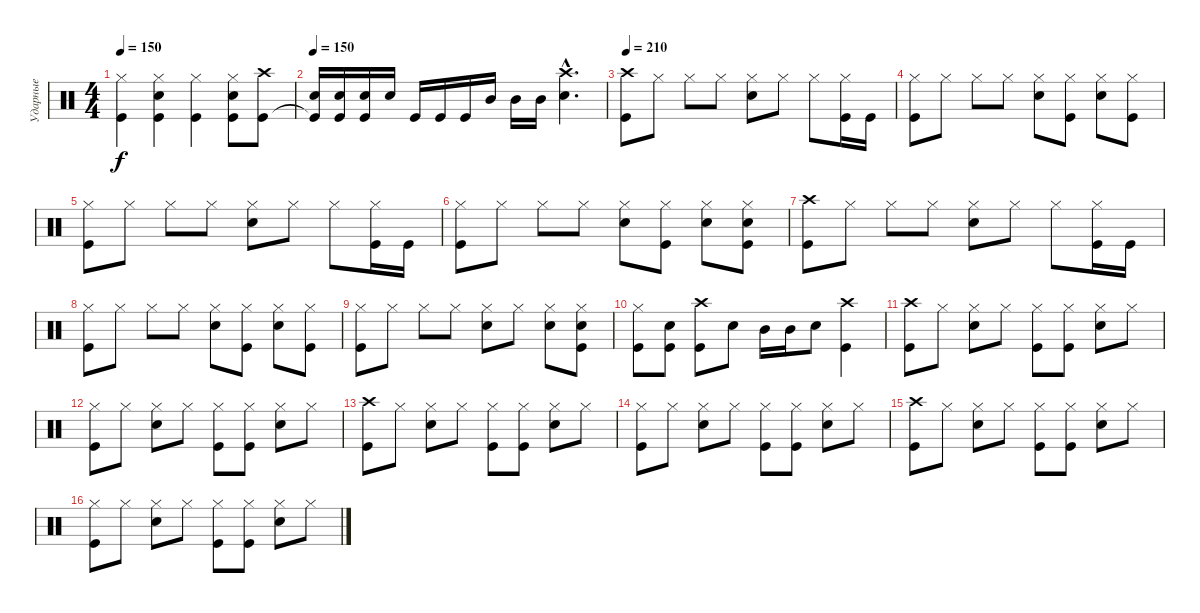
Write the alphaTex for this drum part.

\track ("Ударные" "Ударные") {instrument percussion}
\staff {score}
\articulation defaults
\ts (4 4)
\tempo 150
\clef neutral
\ks c
("Hi-Hat (closed)" "Kick (hit)").4{dy f} ("Hi-Hat (closed)" "Electric Snare (hit)" "Kick (hit)").4 ("Hi-Hat (closed)" "Kick (hit)").4 ("Hi-Hat (closed)" "Electric Snare (hit)" "Kick (hit)").8 ("Crash high (hit)" "Kick (hit)").8 |
\tempo 150
("Electric Snare (hit)" "Kick (hit)"{t}).16 ("Electric Snare (hit)" "Kick (hit)").16 ("Electric Snare (hit)" "Kick (hit)").16 "Electric Snare (hit)".16 "Kick (hit)".16 "Kick (hit)".16 "Kick (hit)".16 "Mid Tom (hit)".16 "Mid Tom (hit)".16 "Mid Tom (hit)".16 ("Crash high (hit)"{hac} "Electric Snare (hit)"{hac}).4{d} |
\tempo 210
("Crash high (hit)" "Kick (hit)").8 "Hi-Hat (closed)".8 "Hi-Hat (closed)".8 "Hi-Hat (closed)".8 ("Hi-Hat (closed)" "Electric Snare (hit)").8 "Hi-Hat (closed)".8 "Hi-Hat (closed)".8 ("Hi-Hat (closed)" "Kick (hit)").16 "Kick (hit)".16 |
("Hi-Hat (closed)" "Kick (hit)").8 "Hi-Hat (closed)".8 "Hi-Hat (closed)".8 "Hi-Hat (closed)".8 ("Hi-Hat (closed)" "Electric Snare (hit)").8 ("Hi-Hat (closed)" "Kick (hit)").8 ("Hi-Hat (closed)" "Electric Snare (hit)").8 ("Hi-Hat (closed)" "Kick (hit)").8 |
("Hi-Hat (closed)" "Kick (hit)").8 "Hi-Hat (closed)".8 "Hi-Hat (closed)".8 "Hi-Hat (closed)".8 ("Hi-Hat (closed)" "Electric Snare (hit)").8 "Hi-Hat (closed)".8 "Hi-Hat (closed)".8 ("Hi-Hat (closed)" "Kick (hit)").16 "Kick (hit)".16 |
("Hi-Hat (closed)" "Kick (hit)").8 "Hi-Hat (closed)".8 "Hi-Hat (closed)".8 "Hi-Hat (closed)".8 ("Hi-Hat (closed)" "Electric Snare (hit)").8 ("Hi-Hat (closed)" "Kick (hit)").8 ("Hi-Hat (closed)" "Electric Snare (hit)").8 ("Hi-Hat (closed)" "Electric Snare (hit)" "Kick (hit)").8 |
("Crash high (hit)" "Kick (hit)").8 "Hi-Hat (closed)".8 "Hi-Hat (closed)".8 "Hi-Hat (closed)".8 ("Hi-Hat (closed)" "Electric Snare (hit)").8 "Hi-Hat (closed)".8 "Hi-Hat (closed)".8 ("Hi-Hat (closed)" "Kick (hit)").16 "Kick (hit)".16 |
("Hi-Hat (closed)" "Kick (hit)").8 "Hi-Hat (closed)".8 "Hi-Hat (closed)".8 "Hi-Hat (closed)".8 ("Hi-Hat (closed)" "Electric Snare (hit)").8 ("Hi-Hat (closed)" "Kick (hit)").8 ("Hi-Hat (closed)" "Electric Snare (hit)").8 ("Hi-Hat (closed)" "Kick (hit)").8 |
("Hi-Hat (closed)" "Kick (hit)").8 "Hi-Hat (closed)".8 "Hi-Hat (closed)".8 "Hi-Hat (closed)".8 ("Hi-Hat (closed)" "Electric Snare (hit)").8 "Hi-Hat (closed)".8 ("Hi-Hat (closed)" "Electric Snare (hit)").8 ("Hi-Hat (closed)" "Electric Snare (hit)" "Kick (hit)").8 |
("Hi-Hat (closed)" "Kick (hit)").8 ("Electric Snare (hit)" "Kick (hit)").8 ("Crash high (hit)" "Kick (hit)").8 "Electric Snare (hit)".8 "Mid Tom (hit)".16 "Mid Tom (hit)".16 "Electric Snare (hit)".8 ("Crash high (hit)" "Kick (hit)").4 |
("Crash high (hit)" "Kick (hit)").8 "Hi-Hat (closed)".8 ("Hi-Hat (closed)" "Electric Snare (hit)").8 "Hi-Hat (closed)".8 ("Hi-Hat (closed)" "Kick (hit)").8 ("Hi-Hat (closed)" "Kick (hit)").8 ("Hi-Hat (closed)" "Electric Snare (hit)").8 "Hi-Hat (closed)".8 |
("Hi-Hat (closed)" "Kick (hit)").8 "Hi-Hat (closed)".8 ("Hi-Hat (closed)" "Electric Snare (hit)").8 "Hi-Hat (closed)".8 ("Hi-Hat (closed)" "Kick (hit)").8 ("Hi-Hat (closed)" "Kick (hit)").8 ("Hi-Hat (closed)" "Electric Snare (hit)").8 "Hi-Hat (closed)".8 |
("Crash high (hit)" "Kick (hit)").8 "Hi-Hat (closed)".8 ("Hi-Hat (closed)" "Electric Snare (hit)").8 "Hi-Hat (closed)".8 ("Hi-Hat (closed)" "Kick (hit)").8 ("Hi-Hat (closed)" "Kick (hit)").8 ("Hi-Hat (closed)" "Electric Snare (hit)").8 "Hi-Hat (closed)".8 |
("Hi-Hat (closed)" "Kick (hit)").8 "Hi-Hat (closed)".8 ("Hi-Hat (closed)" "Electric Snare (hit)").8 "Hi-Hat (closed)".8 ("Hi-Hat (closed)" "Kick (hit)").8 ("Hi-Hat (closed)" "Kick (hit)").8 ("Hi-Hat (closed)" "Electric Snare (hit)").8 "Hi-Hat (closed)".8 |
("Crash high (hit)" "Kick (hit)").8 "Hi-Hat (closed)".8 ("Hi-Hat (closed)" "Electric Snare (hit)").8 "Hi-Hat (closed)".8 ("Hi-Hat (closed)" "Kick (hit)").8 ("Hi-Hat (closed)" "Kick (hit)").8 ("Hi-Hat (closed)" "Electric Snare (hit)").8 "Hi-Hat (closed)".8 |
("Hi-Hat (closed)" "Kick (hit)").8 "Hi-Hat (closed)".8 ("Hi-Hat (closed)" "Electric Snare (hit)").8 "Hi-Hat (closed)".8 ("Hi-Hat (closed)" "Kick (hit)").8 ("Hi-Hat (closed)" "Kick (hit)").8 ("Hi-Hat (closed)" "Electric Snare (hit)").8 "Hi-Hat (closed)".8
